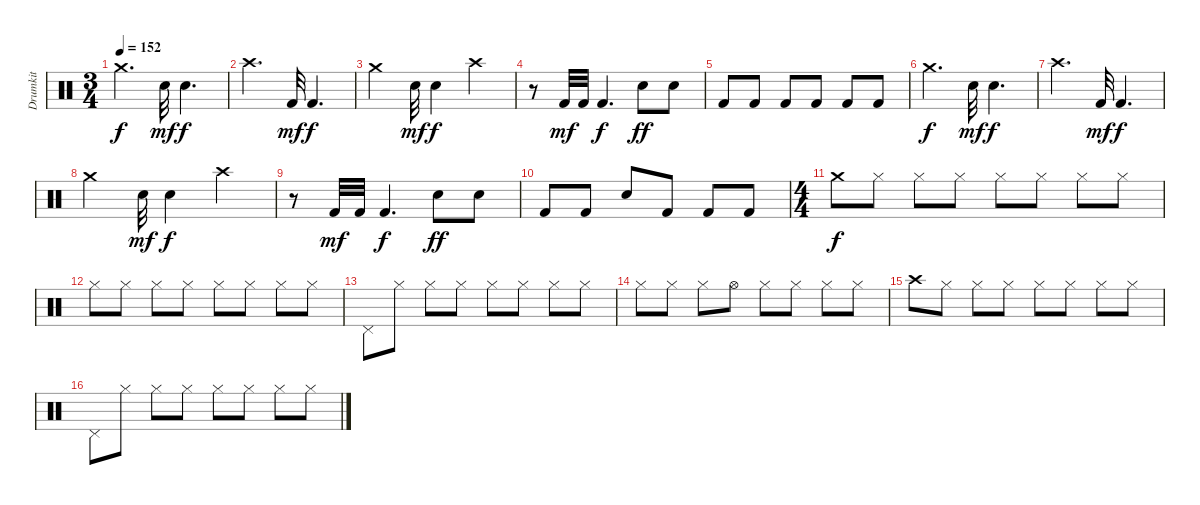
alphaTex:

\track ("Drumkit" "Drumkit") {instrument percussion}
\staff {score}
\articulation defaults
\ts (3 4)
\tempo 152
\clef neutral
\ks c "Crash medium (hit)".4{d dy f} "Snare (hit) 2".32{dy mf} "Snare (hit) 2".4{d dy f}
|
"Crash high (hit)".4{d} "Kick (hit) 2".32{dy mf} "Kick (hit) 2".4{d dy f} |
"Crash medium (hit)".4 "Snare (hit) 2".32{dy mf} "Snare (hit) 2".4{dy f} "Crash high (hit)".4 |
r.8 "Kick (hit) 2".32{dy mf} "Kick (hit) 2".32 "Kick (hit) 2".4{d dy f} "Snare (hit) 2".8{dy ff} "Snare (hit) 2".8 |
"Kick (hit) 2".8 "Kick (hit) 2".8 "Kick (hit) 2".8 "Kick (hit) 2".8 "Kick (hit) 2".8 "Kick (hit) 2".8 |
"Crash medium (hit)".4{d dy f} "Snare (hit) 2".32{dy mf} "Snare (hit) 2".4{d dy f} |
"Crash high (hit)".4{d} "Kick (hit) 2".32{dy mf} "Kick (hit) 2".4{d dy f} |
"Crash medium (hit)".4 "Snare (hit) 2".32{dy mf} "Snare (hit) 2".4{dy f} "Crash high (hit)".4 |
r.8 "Kick (hit) 2".32{dy mf} "Kick (hit) 2".32 "Kick (hit) 2".4{d dy f} "Snare (hit) 2".8{dy ff} "Snare (hit) 2".8 |
"Kick (hit) 2".8 "Kick (hit) 2".8 "Snare (hit) 2".8 "Kick (hit) 2".8 "Kick (hit) 2".8 "Kick (hit) 2".8 |
\ts (4 4)
"Crash medium (hit)".8{dy f} "Hi-Hat (closed)".8 "Hi-Hat (closed)".8 "Hi-Hat (closed)".8 "Hi-Hat (closed)".8 "Hi-Hat (closed)".8 "Hi-Hat (closed)".8 "Hi-Hat (closed)".8 |
"Hi-Hat (closed)".8 "Hi-Hat (closed)".8 "Hi-Hat (closed)".8 "Hi-Hat (closed)".8 "Hi-Hat (closed)".8 "Hi-Hat (closed)".8 "Hi-Hat (closed)".8 "Hi-Hat (closed)".8 |
"Pedal Hi-Hat (hit)".8 "Hi-Hat (closed)".8 "Hi-Hat (closed)".8 "Hi-Hat (closed)".8 "Hi-Hat (closed)".8 "Hi-Hat (closed)".8 "Hi-Hat (closed)".8 "Hi-Hat (closed)".8 |
"Hi-Hat (closed)".8 "Hi-Hat (closed)".8 "Hi-Hat (closed)".8 "Hi-Hat (open)".8 "Hi-Hat (closed)".8 "Hi-Hat (closed)".8 "Hi-Hat (closed)".8 "Hi-Hat (closed)".8 |
"Crash high (hit)".8 "Hi-Hat (closed)".8 "Hi-Hat (closed)".8 "Hi-Hat (closed)".8 "Hi-Hat (closed)".8 "Hi-Hat (closed)".8 "Hi-Hat (closed)".8 "Hi-Hat (closed)".8 |
"Pedal Hi-Hat (hit)".8 "Hi-Hat (closed)".8 "Hi-Hat (closed)".8 "Hi-Hat (closed)".8 "Hi-Hat (closed)".8 "Hi-Hat (closed)".8 "Hi-Hat (closed)".8 "Hi-Hat (closed)".8
